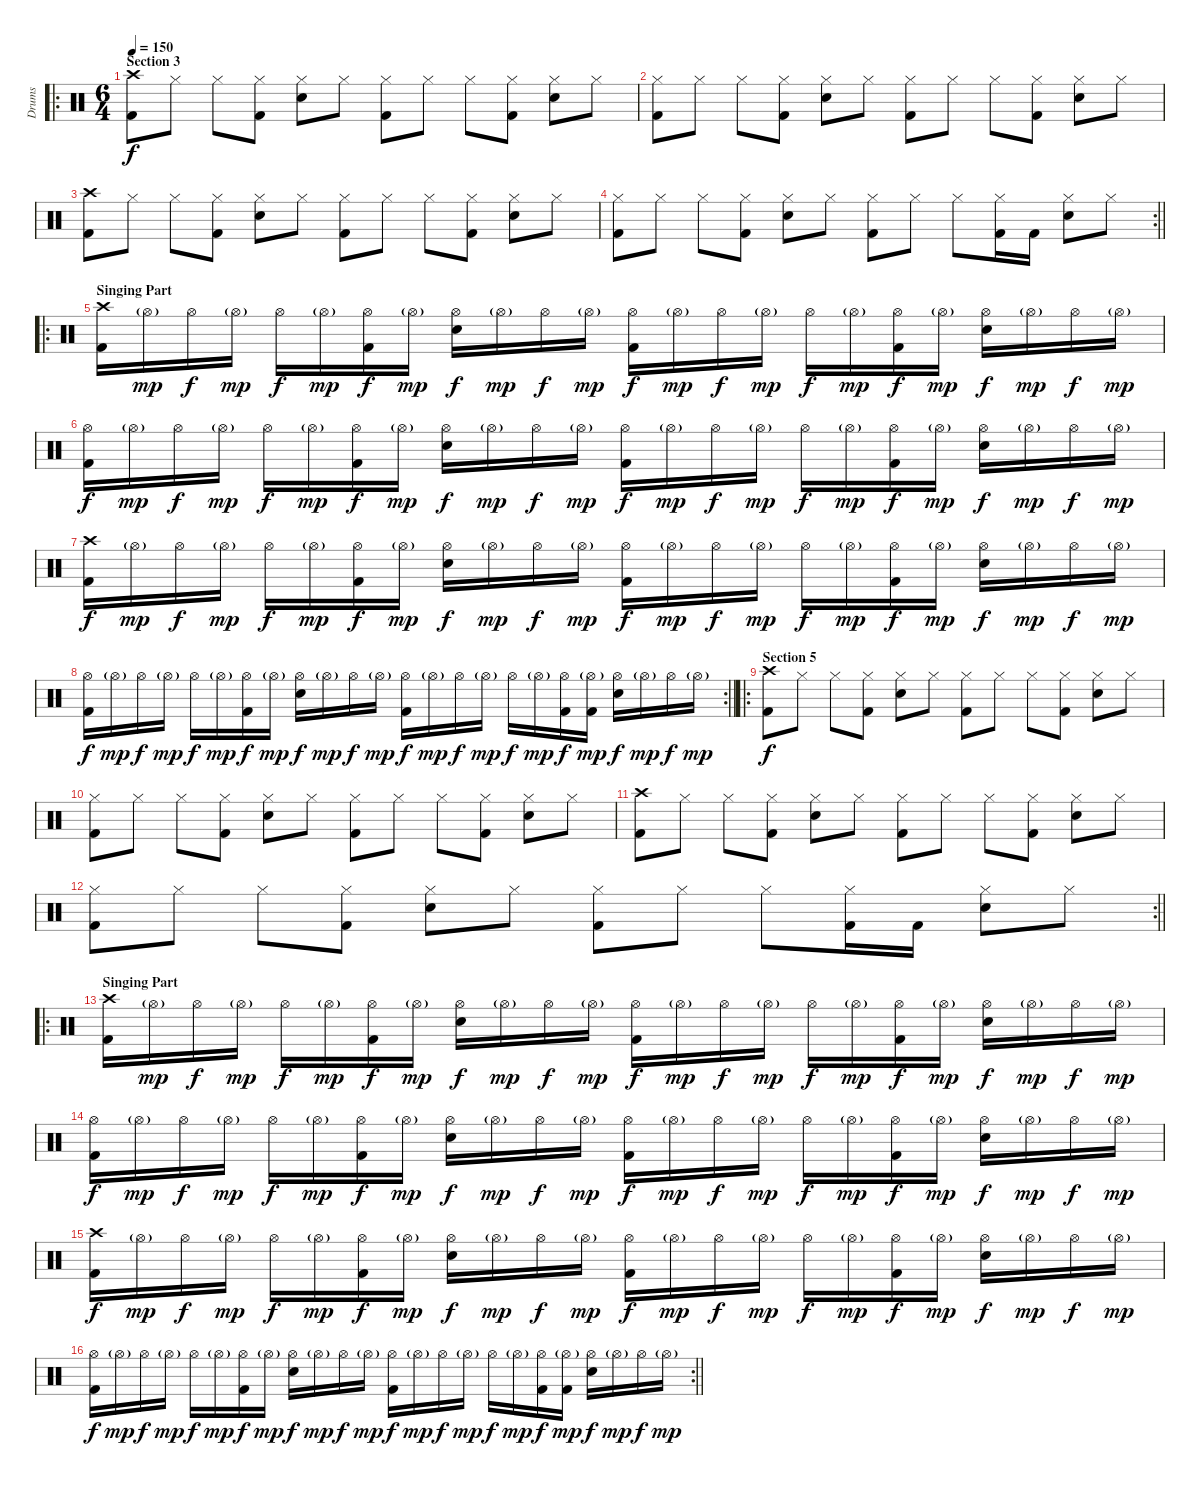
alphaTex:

\track ("Drums" "Drums") {instrument percussion}
\staff {score}
\articulation defaults
\ro
\ts (6 4)
\section ("" "Section 3")
\tempo 150
\clef neutral
\ks c
("Kick (hit) 2" "Crash high (hit)").8{dy f} "Hi-Hat (closed)".8 "Hi-Hat (closed)".8 ("Kick (hit) 2" "Hi-Hat (closed)").8 ("Snare (hit) 2" "Hi-Hat (closed)").8 "Hi-Hat (closed)".8 ("Kick (hit) 2" "Hi-Hat (closed)").8 "Hi-Hat (closed)".8 "Hi-Hat (closed)".8 ("Kick (hit) 2" "Hi-Hat (closed)").8 ("Snare (hit) 2" "Hi-Hat (closed)").8 "Hi-Hat (closed)".8 |
("Kick (hit) 2" "Hi-Hat (closed)").8 "Hi-Hat (closed)".8 "Hi-Hat (closed)".8 ("Kick (hit) 2" "Hi-Hat (closed)").8 ("Snare (hit) 2" "Hi-Hat (closed)").8 "Hi-Hat (closed)".8 ("Kick (hit) 2" "Hi-Hat (closed)").8 "Hi-Hat (closed)".8 "Hi-Hat (closed)".8 ("Kick (hit) 2" "Hi-Hat (closed)").8 ("Snare (hit) 2" "Hi-Hat (closed)").8 "Hi-Hat (closed)".8 |
("Kick (hit) 2" "Crash high (hit)").8 "Hi-Hat (closed)".8 "Hi-Hat (closed)".8 ("Kick (hit) 2" "Hi-Hat (closed)").8 ("Snare (hit) 2" "Hi-Hat (closed)").8 "Hi-Hat (closed)".8 ("Kick (hit) 2" "Hi-Hat (closed)").8 "Hi-Hat (closed)".8 "Hi-Hat (closed)".8 ("Kick (hit) 2" "Hi-Hat (closed)").8 ("Snare (hit) 2" "Hi-Hat (closed)").8 "Hi-Hat (closed)".8 |
\rc 2
\barLineRight lightlight
("Kick (hit) 2" "Hi-Hat (closed)").8 "Hi-Hat (closed)".8 "Hi-Hat (closed)".8 ("Kick (hit) 2" "Hi-Hat (closed)").8 ("Snare (hit) 2" "Hi-Hat (closed)").8 "Hi-Hat (closed)".8 ("Kick (hit) 2" "Hi-Hat (closed)").8 "Hi-Hat (closed)".8 "Hi-Hat (closed)".8 ("Kick (hit) 2" "Hi-Hat (closed)").16 "Kick (hit) 2".16 ("Snare (hit) 2" "Hi-Hat (closed)").8 "Hi-Hat (closed)".8 |
\ro
\section ("" "Singing Part")
("Kick (hit) 2" "Crash high (hit)").16 "Hi-Hat (open)"{g}.16{dy mp} "Hi-Hat (open)".16{dy f} "Hi-Hat (open)"{g}.16{dy mp} "Hi-Hat (open)".16{dy f} "Hi-Hat (open)"{g}.16{dy mp} ("Kick (hit) 2" "Hi-Hat (open)").16{dy f} "Hi-Hat (open)"{g}.16{dy mp} ("Snare (hit) 2" "Hi-Hat (open)").16{dy f} "Hi-Hat (open)"{g}.16{dy mp} "Hi-Hat (open)".16{dy f} "Hi-Hat (open)"{g}.16{dy mp} ("Kick (hit) 2" "Hi-Hat (open)").16{dy f} "Hi-Hat (open)"{g}.16{dy mp} "Hi-Hat (open)".16{dy f} "Hi-Hat (open)"{g}.16{dy mp} "Hi-Hat (open)".16{dy f} "Hi-Hat (open)"{g}.16{dy mp} ("Kick (hit) 2" "Hi-Hat (open)").16{dy f} "Hi-Hat (open)"{g}.16{dy mp} ("Snare (hit) 2" "Hi-Hat (open)").16{dy f} "Hi-Hat (open)"{g}.16{dy mp} "Hi-Hat (open)".16{dy f} "Hi-Hat (open)"{g}.16{dy mp} |
("Kick (hit) 2" "Hi-Hat (open)").16{dy f} "Hi-Hat (open)"{g}.16{dy mp} "Hi-Hat (open)".16{dy f} "Hi-Hat (open)"{g}.16{dy mp} "Hi-Hat (open)".16{dy f} "Hi-Hat (open)"{g}.16{dy mp} ("Kick (hit) 2" "Hi-Hat (open)").16{dy f} "Hi-Hat (open)"{g}.16{dy mp} ("Snare (hit) 2" "Hi-Hat (open)").16{dy f} "Hi-Hat (open)"{g}.16{dy mp} "Hi-Hat (open)".16{dy f} "Hi-Hat (open)"{g}.16{dy mp} ("Kick (hit) 2" "Hi-Hat (open)").16{dy f} "Hi-Hat (open)"{g}.16{dy mp} "Hi-Hat (open)".16{dy f} "Hi-Hat (open)"{g}.16{dy mp} "Hi-Hat (open)".16{dy f} "Hi-Hat (open)"{g}.16{dy mp} ("Kick (hit) 2" "Hi-Hat (open)").16{dy f} "Hi-Hat (open)"{g}.16{dy mp} ("Snare (hit) 2" "Hi-Hat (open)").16{dy f} "Hi-Hat (open)"{g}.16{dy mp} "Hi-Hat (open)".16{dy f} "Hi-Hat (open)"{g}.16{dy mp} |
("Kick (hit) 2" "Crash high (hit)").16{dy f} "Hi-Hat (open)"{g}.16{dy mp} "Hi-Hat (open)".16{dy f} "Hi-Hat (open)"{g}.16{dy mp} "Hi-Hat (open)".16{dy f} "Hi-Hat (open)"{g}.16{dy mp} ("Kick (hit) 2" "Hi-Hat (open)").16{dy f} "Hi-Hat (open)"{g}.16{dy mp} ("Snare (hit) 2" "Hi-Hat (open)").16{dy f} "Hi-Hat (open)"{g}.16{dy mp} "Hi-Hat (open)".16{dy f} "Hi-Hat (open)"{g}.16{dy mp} ("Kick (hit) 2" "Hi-Hat (open)").16{dy f} "Hi-Hat (open)"{g}.16{dy mp} "Hi-Hat (open)".16{dy f} "Hi-Hat (open)"{g}.16{dy mp} "Hi-Hat (open)".16{dy f} "Hi-Hat (open)"{g}.16{dy mp} ("Kick (hit) 2" "Hi-Hat (open)").16{dy f} "Hi-Hat (open)"{g}.16{dy mp} ("Snare (hit) 2" "Hi-Hat (open)").16{dy f} "Hi-Hat (open)"{g}.16{dy mp} "Hi-Hat (open)".16{dy f} "Hi-Hat (open)"{g}.16{dy mp} |
\rc 2
\barLineRight lightlight
("Kick (hit) 2" "Hi-Hat (open)").16{dy f} "Hi-Hat (open)"{g}.16{dy mp} "Hi-Hat (open)".16{dy f} "Hi-Hat (open)"{g}.16{dy mp} "Hi-Hat (open)".16{dy f} "Hi-Hat (open)"{g}.16{dy mp} ("Kick (hit) 2" "Hi-Hat (open)").16{dy f} "Hi-Hat (open)"{g}.16{dy mp} ("Snare (hit) 2" "Hi-Hat (open)").16{dy f} "Hi-Hat (open)"{g}.16{dy mp} "Hi-Hat (open)".16{dy f} "Hi-Hat (open)"{g}.16{dy mp} ("Kick (hit) 2" "Hi-Hat (open)").16{dy f} "Hi-Hat (open)"{g}.16{dy mp} "Hi-Hat (open)".16{dy f} "Hi-Hat (open)"{g}.16{dy mp} "Hi-Hat (open)".16{dy f} "Hi-Hat (open)"{g}.16{dy mp} ("Kick (hit) 2" "Hi-Hat (open)").16{dy f} ("Kick (hit) 2" "Hi-Hat (open)"{g}).16{dy mp} ("Snare (hit) 2" "Hi-Hat (open)").16{dy f} "Hi-Hat (open)"{g}.16{dy mp} "Hi-Hat (open)".16{dy f} "Hi-Hat (open)"{g}.16{dy mp} |
\ro
\section ("" "Section 5")
("Kick (hit) 2" "Crash high (hit)").8{dy f} "Hi-Hat (closed)".8 "Hi-Hat (closed)".8 ("Kick (hit) 2" "Hi-Hat (closed)").8 ("Snare (hit) 2" "Hi-Hat (closed)").8 "Hi-Hat (closed)".8 ("Kick (hit) 2" "Hi-Hat (closed)").8 "Hi-Hat (closed)".8 "Hi-Hat (closed)".8 ("Kick (hit) 2" "Hi-Hat (closed)").8 ("Snare (hit) 2" "Hi-Hat (closed)").8 "Hi-Hat (closed)".8 |
("Kick (hit) 2" "Hi-Hat (closed)").8 "Hi-Hat (closed)".8 "Hi-Hat (closed)".8 ("Kick (hit) 2" "Hi-Hat (closed)").8 ("Snare (hit) 2" "Hi-Hat (closed)").8 "Hi-Hat (closed)".8 ("Kick (hit) 2" "Hi-Hat (closed)").8 "Hi-Hat (closed)".8 "Hi-Hat (closed)".8 ("Kick (hit) 2" "Hi-Hat (closed)").8 ("Snare (hit) 2" "Hi-Hat (closed)").8 "Hi-Hat (closed)".8 |
("Kick (hit) 2" "Crash high (hit)").8 "Hi-Hat (closed)".8 "Hi-Hat (closed)".8 ("Kick (hit) 2" "Hi-Hat (closed)").8 ("Snare (hit) 2" "Hi-Hat (closed)").8 "Hi-Hat (closed)".8 ("Kick (hit) 2" "Hi-Hat (closed)").8 "Hi-Hat (closed)".8 "Hi-Hat (closed)".8 ("Kick (hit) 2" "Hi-Hat (closed)").8 ("Snare (hit) 2" "Hi-Hat (closed)").8 "Hi-Hat (closed)".8 |
\rc 2
\barLineRight lightlight
("Kick (hit) 2" "Hi-Hat (closed)").8 "Hi-Hat (closed)".8 "Hi-Hat (closed)".8 ("Kick (hit) 2" "Hi-Hat (closed)").8 ("Snare (hit) 2" "Hi-Hat (closed)").8 "Hi-Hat (closed)".8 ("Kick (hit) 2" "Hi-Hat (closed)").8 "Hi-Hat (closed)".8 "Hi-Hat (closed)".8 ("Kick (hit) 2" "Hi-Hat (closed)").16 "Kick (hit) 2".16 ("Snare (hit) 2" "Hi-Hat (closed)").8 "Hi-Hat (closed)".8 |
\ro
\section ("" "Singing Part")
("Kick (hit) 2" "Crash high (hit)").16 "Hi-Hat (open)"{g}.16{dy mp} "Hi-Hat (open)".16{dy f} "Hi-Hat (open)"{g}.16{dy mp} "Hi-Hat (open)".16{dy f} "Hi-Hat (open)"{g}.16{dy mp} ("Kick (hit) 2" "Hi-Hat (open)").16{dy f} "Hi-Hat (open)"{g}.16{dy mp} ("Snare (hit) 2" "Hi-Hat (open)").16{dy f} "Hi-Hat (open)"{g}.16{dy mp} "Hi-Hat (open)".16{dy f} "Hi-Hat (open)"{g}.16{dy mp} ("Kick (hit) 2" "Hi-Hat (open)").16{dy f} "Hi-Hat (open)"{g}.16{dy mp} "Hi-Hat (open)".16{dy f} "Hi-Hat (open)"{g}.16{dy mp} "Hi-Hat (open)".16{dy f} "Hi-Hat (open)"{g}.16{dy mp} ("Kick (hit) 2" "Hi-Hat (open)").16{dy f} "Hi-Hat (open)"{g}.16{dy mp} ("Snare (hit) 2" "Hi-Hat (open)").16{dy f} "Hi-Hat (open)"{g}.16{dy mp} "Hi-Hat (open)".16{dy f} "Hi-Hat (open)"{g}.16{dy mp} |
("Kick (hit) 2" "Hi-Hat (open)").16{dy f} "Hi-Hat (open)"{g}.16{dy mp} "Hi-Hat (open)".16{dy f} "Hi-Hat (open)"{g}.16{dy mp} "Hi-Hat (open)".16{dy f} "Hi-Hat (open)"{g}.16{dy mp} ("Kick (hit) 2" "Hi-Hat (open)").16{dy f} "Hi-Hat (open)"{g}.16{dy mp} ("Snare (hit) 2" "Hi-Hat (open)").16{dy f} "Hi-Hat (open)"{g}.16{dy mp} "Hi-Hat (open)".16{dy f} "Hi-Hat (open)"{g}.16{dy mp} ("Kick (hit) 2" "Hi-Hat (open)").16{dy f} "Hi-Hat (open)"{g}.16{dy mp} "Hi-Hat (open)".16{dy f} "Hi-Hat (open)"{g}.16{dy mp} "Hi-Hat (open)".16{dy f} "Hi-Hat (open)"{g}.16{dy mp} ("Kick (hit) 2" "Hi-Hat (open)").16{dy f} "Hi-Hat (open)"{g}.16{dy mp} ("Snare (hit) 2" "Hi-Hat (open)").16{dy f} "Hi-Hat (open)"{g}.16{dy mp} "Hi-Hat (open)".16{dy f} "Hi-Hat (open)"{g}.16{dy mp} |
("Kick (hit) 2" "Crash high (hit)").16{dy f} "Hi-Hat (open)"{g}.16{dy mp} "Hi-Hat (open)".16{dy f} "Hi-Hat (open)"{g}.16{dy mp} "Hi-Hat (open)".16{dy f} "Hi-Hat (open)"{g}.16{dy mp} ("Kick (hit) 2" "Hi-Hat (open)").16{dy f} "Hi-Hat (open)"{g}.16{dy mp} ("Snare (hit) 2" "Hi-Hat (open)").16{dy f} "Hi-Hat (open)"{g}.16{dy mp} "Hi-Hat (open)".16{dy f} "Hi-Hat (open)"{g}.16{dy mp} ("Kick (hit) 2" "Hi-Hat (open)").16{dy f} "Hi-Hat (open)"{g}.16{dy mp} "Hi-Hat (open)".16{dy f} "Hi-Hat (open)"{g}.16{dy mp} "Hi-Hat (open)".16{dy f} "Hi-Hat (open)"{g}.16{dy mp} ("Kick (hit) 2" "Hi-Hat (open)").16{dy f} "Hi-Hat (open)"{g}.16{dy mp} ("Snare (hit) 2" "Hi-Hat (open)").16{dy f} "Hi-Hat (open)"{g}.16{dy mp} "Hi-Hat (open)".16{dy f} "Hi-Hat (open)"{g}.16{dy mp} |
\rc 2
\barLineRight lightlight
("Kick (hit) 2" "Hi-Hat (open)").16{dy f} "Hi-Hat (open)"{g}.16{dy mp} "Hi-Hat (open)".16{dy f} "Hi-Hat (open)"{g}.16{dy mp} "Hi-Hat (open)".16{dy f} "Hi-Hat (open)"{g}.16{dy mp} ("Kick (hit) 2" "Hi-Hat (open)").16{dy f} "Hi-Hat (open)"{g}.16{dy mp} ("Snare (hit) 2" "Hi-Hat (open)").16{dy f} "Hi-Hat (open)"{g}.16{dy mp} "Hi-Hat (open)".16{dy f} "Hi-Hat (open)"{g}.16{dy mp} ("Kick (hit) 2" "Hi-Hat (open)").16{dy f} "Hi-Hat (open)"{g}.16{dy mp} "Hi-Hat (open)".16{dy f} "Hi-Hat (open)"{g}.16{dy mp} "Hi-Hat (open)".16{dy f} "Hi-Hat (open)"{g}.16{dy mp} ("Kick (hit) 2" "Hi-Hat (open)").16{dy f} ("Kick (hit) 2" "Hi-Hat (open)"{g}).16{dy mp} ("Snare (hit) 2" "Hi-Hat (open)").16{dy f} "Hi-Hat (open)"{g}.16{dy mp} "Hi-Hat (open)".16{dy f} "Hi-Hat (open)"{g}.16{dy mp}
